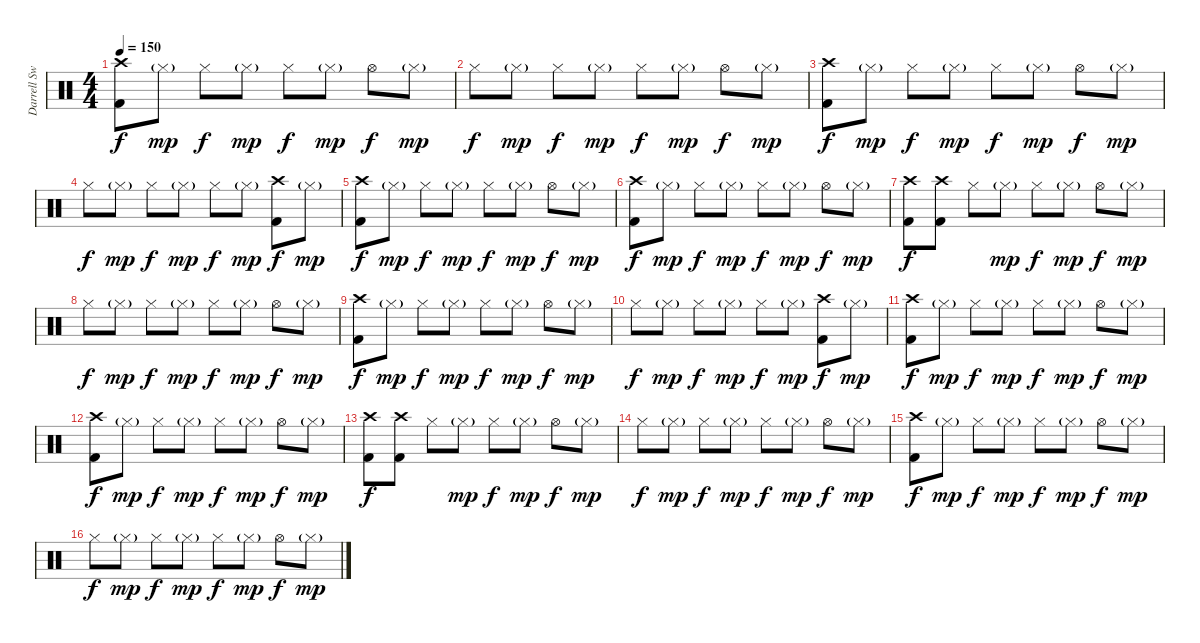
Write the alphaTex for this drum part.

\track ("Darrell Sweet (drums)" "Darrell Sw") {instrument percussion}
\staff {score}
\articulation defaults
\ts (4 4)
\tempo 150
\clef neutral
\ks c
("Kick (hit) 2" "Crash high (hit)").8{dy f} "Hi-Hat (closed)"{g}.8{dy mp} "Hi-Hat (closed)".8{dy f} "Hi-Hat (closed)"{g}.8{dy mp} "Hi-Hat (closed)".8{dy f} "Hi-Hat (closed)"{g}.8{dy mp} "Hi-Hat (open)".8{dy f} "Hi-Hat (closed)"{g}.8{dy mp} |
"Hi-Hat (closed)".8{dy f} "Hi-Hat (closed)"{g}.8{dy mp} "Hi-Hat (closed)".8{dy f} "Hi-Hat (closed)"{g}.8{dy mp} "Hi-Hat (closed)".8{dy f} "Hi-Hat (closed)"{g}.8{dy mp} "Hi-Hat (open)".8{dy f} "Hi-Hat (closed)"{g}.8{dy mp} |
("Kick (hit) 2" "Crash high (hit)").8{dy f} "Hi-Hat (closed)"{g}.8{dy mp} "Hi-Hat (closed)".8{dy f} "Hi-Hat (closed)"{g}.8{dy mp} "Hi-Hat (closed)".8{dy f} "Hi-Hat (closed)"{g}.8{dy mp} "Hi-Hat (open)".8{dy f} "Hi-Hat (closed)"{g}.8{dy mp} |
"Hi-Hat (closed)".8{dy f} "Hi-Hat (closed)"{g}.8{dy mp} "Hi-Hat (closed)".8{dy f} "Hi-Hat (closed)"{g}.8{dy mp} "Hi-Hat (closed)".8{dy f} "Hi-Hat (closed)"{g}.8{dy mp} ("Kick (hit) 2" "Crash high (hit)").8{dy f} "Hi-Hat (closed)"{g}.8{dy mp} |
("Kick (hit) 2" "Crash high (hit)").8{dy f} "Hi-Hat (closed)"{g}.8{dy mp} "Hi-Hat (closed)".8{dy f} "Hi-Hat (closed)"{g}.8{dy mp} "Hi-Hat (closed)".8{dy f} "Hi-Hat (closed)"{g}.8{dy mp} "Hi-Hat (open)".8{dy f} "Hi-Hat (closed)"{g}.8{dy mp} |
("Kick (hit) 2" "Crash high (hit)").8{dy f} "Hi-Hat (closed)"{g}.8{dy mp} "Hi-Hat (closed)".8{dy f} "Hi-Hat (closed)"{g}.8{dy mp} "Hi-Hat (closed)".8{dy f} "Hi-Hat (closed)"{g}.8{dy mp} "Hi-Hat (open)".8{dy f} "Hi-Hat (closed)"{g}.8{dy mp} |
("Kick (hit) 2" "Crash high (hit)").8{dy f} ("Kick (hit) 2" "Crash high (hit)").8 "Hi-Hat (closed)".8 "Hi-Hat (closed)"{g}.8{dy mp} "Hi-Hat (closed)".8{dy f} "Hi-Hat (closed)"{g}.8{dy mp} "Hi-Hat (open)".8{dy f} "Hi-Hat (closed)"{g}.8{dy mp} |
"Hi-Hat (closed)".8{dy f} "Hi-Hat (closed)"{g}.8{dy mp} "Hi-Hat (closed)".8{dy f} "Hi-Hat (closed)"{g}.8{dy mp} "Hi-Hat (closed)".8{dy f} "Hi-Hat (closed)"{g}.8{dy mp} "Hi-Hat (open)".8{dy f} "Hi-Hat (closed)"{g}.8{dy mp} |
("Kick (hit) 2" "Crash high (hit)").8{dy f} "Hi-Hat (closed)"{g}.8{dy mp} "Hi-Hat (closed)".8{dy f} "Hi-Hat (closed)"{g}.8{dy mp} "Hi-Hat (closed)".8{dy f} "Hi-Hat (closed)"{g}.8{dy mp} "Hi-Hat (open)".8{dy f} "Hi-Hat (closed)"{g}.8{dy mp} |
"Hi-Hat (closed)".8{dy f} "Hi-Hat (closed)"{g}.8{dy mp} "Hi-Hat (closed)".8{dy f} "Hi-Hat (closed)"{g}.8{dy mp} "Hi-Hat (closed)".8{dy f} "Hi-Hat (closed)"{g}.8{dy mp} ("Kick (hit) 2" "Crash high (hit)").8{dy f} "Hi-Hat (closed)"{g}.8{dy mp} |
("Kick (hit) 2" "Crash high (hit)").8{dy f} "Hi-Hat (closed)"{g}.8{dy mp} "Hi-Hat (closed)".8{dy f} "Hi-Hat (closed)"{g}.8{dy mp} "Hi-Hat (closed)".8{dy f} "Hi-Hat (closed)"{g}.8{dy mp} "Hi-Hat (open)".8{dy f} "Hi-Hat (closed)"{g}.8{dy mp} |
("Kick (hit) 2" "Crash high (hit)").8{dy f} "Hi-Hat (closed)"{g}.8{dy mp} "Hi-Hat (closed)".8{dy f} "Hi-Hat (closed)"{g}.8{dy mp} "Hi-Hat (closed)".8{dy f} "Hi-Hat (closed)"{g}.8{dy mp} "Hi-Hat (open)".8{dy f} "Hi-Hat (closed)"{g}.8{dy mp} |
("Kick (hit) 2" "Crash high (hit)").8{dy f} ("Kick (hit) 2" "Crash high (hit)").8 "Hi-Hat (closed)".8 "Hi-Hat (closed)"{g}.8{dy mp} "Hi-Hat (closed)".8{dy f} "Hi-Hat (closed)"{g}.8{dy mp} "Hi-Hat (open)".8{dy f} "Hi-Hat (closed)"{g}.8{dy mp} |
"Hi-Hat (closed)".8{dy f} "Hi-Hat (closed)"{g}.8{dy mp} "Hi-Hat (closed)".8{dy f} "Hi-Hat (closed)"{g}.8{dy mp} "Hi-Hat (closed)".8{dy f} "Hi-Hat (closed)"{g}.8{dy mp} "Hi-Hat (open)".8{dy f} "Hi-Hat (closed)"{g}.8{dy mp} |
("Kick (hit) 2" "Crash high (hit)").8{dy f} "Hi-Hat (closed)"{g}.8{dy mp} "Hi-Hat (closed)".8{dy f} "Hi-Hat (closed)"{g}.8{dy mp} "Hi-Hat (closed)".8{dy f} "Hi-Hat (closed)"{g}.8{dy mp} "Hi-Hat (open)".8{dy f} "Hi-Hat (closed)"{g}.8{dy mp} |
"Hi-Hat (closed)".8{dy f} "Hi-Hat (closed)"{g}.8{dy mp} "Hi-Hat (closed)".8{dy f} "Hi-Hat (closed)"{g}.8{dy mp} "Hi-Hat (closed)".8{dy f} "Hi-Hat (closed)"{g}.8{dy mp} "Hi-Hat (open)".8{dy f} "Hi-Hat (closed)"{g}.8{dy mp}
